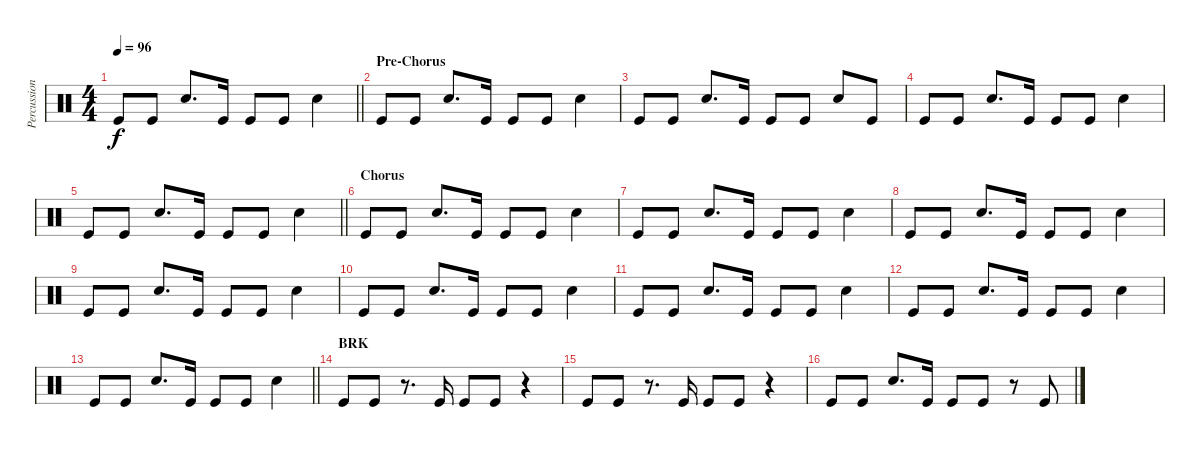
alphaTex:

\track ("Percussion" "Percussion") {instrument percussion}
\staff {score}
\articulation defaults
\ts (4 4)
\tempo 96
\clef neutral
\barLineRight lightlight
\ks c "Kick (hit)".8{dy f} "Kick (hit)".8 "Electric Snare (hit)".8{d} "Kick (hit)".16 "Kick (hit)".8 "Kick (hit)".8 "Electric Snare (hit)".4
|
\section ("" "Pre-Chorus")
"Kick (hit)".8 "Kick (hit)".8 "Electric Snare (hit)".8{d} "Kick (hit)".16 "Kick (hit)".8 "Kick (hit)".8 "Electric Snare (hit)".4 |
"Kick (hit)".8 "Kick (hit)".8 "Electric Snare (hit)".8{d} "Kick (hit)".16 "Kick (hit)".8 "Kick (hit)".8 "Electric Snare (hit)".8 "Kick (hit)".8 |
"Kick (hit)".8 "Kick (hit)".8 "Electric Snare (hit)".8{d} "Kick (hit)".16 "Kick (hit)".8 "Kick (hit)".8 "Electric Snare (hit)".4 |
\barLineRight lightlight "Kick (hit)".8 "Kick (hit)".8 "Electric Snare (hit)".8{d} "Kick (hit)".16 "Kick (hit)".8 "Kick (hit)".8 "Electric Snare (hit)".4
|
\section ("" "Chorus")
"Kick (hit)".8 "Kick (hit)".8 "Electric Snare (hit)".8{d} "Kick (hit)".16 "Kick (hit)".8 "Kick (hit)".8 "Electric Snare (hit)".4 |
"Kick (hit)".8 "Kick (hit)".8 "Electric Snare (hit)".8{d} "Kick (hit)".16 "Kick (hit)".8 "Kick (hit)".8 "Electric Snare (hit)".4 |
"Kick (hit)".8 "Kick (hit)".8 "Electric Snare (hit)".8{d} "Kick (hit)".16 "Kick (hit)".8 "Kick (hit)".8 "Electric Snare (hit)".4 |
"Kick (hit)".8 "Kick (hit)".8 "Electric Snare (hit)".8{d} "Kick (hit)".16 "Kick (hit)".8 "Kick (hit)".8 "Electric Snare (hit)".4 |
"Kick (hit)".8 "Kick (hit)".8 "Electric Snare (hit)".8{d} "Kick (hit)".16 "Kick (hit)".8 "Kick (hit)".8 "Electric Snare (hit)".4 |
"Kick (hit)".8 "Kick (hit)".8 "Electric Snare (hit)".8{d} "Kick (hit)".16 "Kick (hit)".8 "Kick (hit)".8 "Electric Snare (hit)".4 |
"Kick (hit)".8 "Kick (hit)".8 "Electric Snare (hit)".8{d} "Kick (hit)".16 "Kick (hit)".8 "Kick (hit)".8 "Electric Snare (hit)".4 |
\barLineRight lightlight "Kick (hit)".8 "Kick (hit)".8 "Electric Snare (hit)".8{d} "Kick (hit)".16 "Kick (hit)".8 "Kick (hit)".8 "Electric Snare (hit)".4
|
\section ("" "BRK")
"Kick (hit)".8 "Kick (hit)".8 r.8{d} "Kick (hit)".16 "Kick (hit)".8 "Kick (hit)".8 r.4 |
"Kick (hit)".8 "Kick (hit)".8 r.8{d} "Kick (hit)".16 "Kick (hit)".8 "Kick (hit)".8 r.4 |
"Kick (hit)".8 "Kick (hit)".8 "Electric Snare (hit)".8{d} "Kick (hit)".16 "Kick (hit)".8 "Kick (hit)".8 r.8 "Kick (hit)".8
